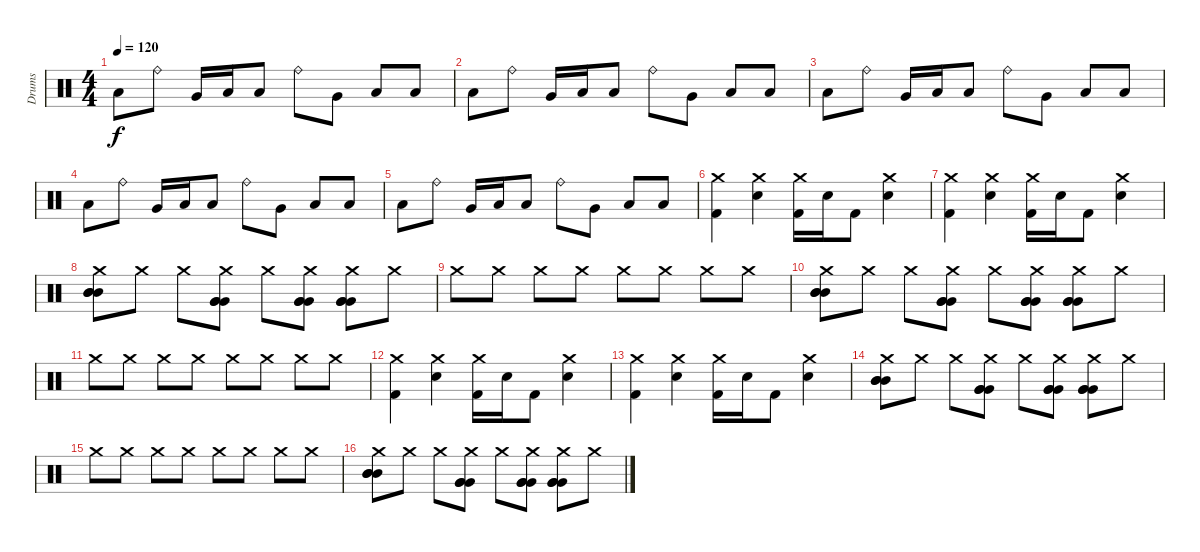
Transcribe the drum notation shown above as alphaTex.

\track ("Drums" "Drums") {instrument percussion}
\staff {score}
\articulation defaults
\ts (4 4)
\tempo 120
\clef neutral
\ks c "Low Tom (hit)".8{dy f} "Ride (bell)".8 "Very Low Tom (hit)".16 "Low Floor Tom (hit)".16 "Low Tom (hit)".8 "Ride (bell)".8 "Very Low Tom (hit)".8 "Low Tom (hit)".8 "Low Floor Tom (hit)".8
|
"Low Tom (hit)".8 "Ride (bell)".8 "Very Low Tom (hit)".16 "Low Floor Tom (hit)".16 "Low Tom (hit)".8 "Ride (bell)".8 "Very Low Tom (hit)".8 "Low Tom (hit)".8 "Low Floor Tom (hit)".8 |
"Low Tom (hit)".8 "Ride (bell)".8 "Very Low Tom (hit)".16 "Low Floor Tom (hit)".16 "Low Tom (hit)".8 "Ride (bell)".8 "Very Low Tom (hit)".8 "Low Tom (hit)".8 "Low Floor Tom (hit)".8 |
"Low Tom (hit)".8 "Ride (bell)".8 "Very Low Tom (hit)".16 "Low Floor Tom (hit)".16 "Low Tom (hit)".8 "Ride (bell)".8 "Very Low Tom (hit)".8 "Low Tom (hit)".8 "Low Floor Tom (hit)".8 |
"Low Tom (hit)".8 "Ride (bell)".8 "Very Low Tom (hit)".16 "Low Floor Tom (hit)".16 "Low Tom (hit)".8 "Ride (bell)".8 "Very Low Tom (hit)".8 "Low Tom (hit)".8 "Low Floor Tom (hit)".8 |
("Crash medium (hit)" "Kick (hit) 2").4 ("Crash medium (hit)" "Snare (hit) 2").4 ("Crash medium (hit)" "Kick (hit) 2").16 "Snare (hit) 2".16 "Kick (hit) 2".8 ("Crash medium (hit)" "Snare (hit) 2").4 |
("Crash medium (hit)" "Kick (hit) 2").4 ("Crash medium (hit)" "Snare (hit) 2").4 ("Crash medium (hit)" "Kick (hit) 2").16 "Snare (hit) 2".16 "Kick (hit) 2".8 ("Crash medium (hit)" "Snare (hit) 2").4 |
("Crash medium (hit)" "Mid Tom (hit)" "Mid Tom (hit)" "Mid Tom (hit)").8{volume 16} "Crash medium (hit)".8 "Crash medium (hit)".8 ("Crash medium (hit)" "Very Low Tom (hit)" "Very Low Tom (hit)" "Very Low Tom (hit)").8 "Crash medium (hit)".8 ("Crash medium (hit)" "Very Low Tom (hit)" "Very Low Tom (hit)" "Very Low Tom (hit)").8 ("Crash medium (hit)" "Very Low Tom (hit)" "Very Low Tom (hit)" "Very Low Tom (hit)").8 "Crash medium (hit)".8 |
"Crash medium (hit)".8{volume 10} "Crash medium (hit)".8 "Crash medium (hit)".8 "Crash medium (hit)".8 "Crash medium (hit)".8 "Crash medium (hit)".8 "Crash medium (hit)".8 "Crash medium (hit)".8 |
("Crash medium (hit)" "Mid Tom (hit)" "Mid Tom (hit)" "Mid Tom (hit)").8{volume 16} "Crash medium (hit)".8 "Crash medium (hit)".8 ("Crash medium (hit)" "Very Low Tom (hit)" "Very Low Tom (hit)" "Very Low Tom (hit)").8 "Crash medium (hit)".8 ("Crash medium (hit)" "Very Low Tom (hit)" "Very Low Tom (hit)" "Very Low Tom (hit)").8 ("Crash medium (hit)" "Very Low Tom (hit)" "Very Low Tom (hit)" "Very Low Tom (hit)").8 "Crash medium (hit)".8 |
"Crash medium (hit)".8{volume 10} "Crash medium (hit)".8 "Crash medium (hit)".8 "Crash medium (hit)".8 "Crash medium (hit)".8 "Crash medium (hit)".8 "Crash medium (hit)".8 "Crash medium (hit)".8 |
("Crash medium (hit)" "Kick (hit) 2").4 ("Crash medium (hit)" "Snare (hit) 2").4 ("Crash medium (hit)" "Kick (hit) 2").16 "Snare (hit) 2".16 "Kick (hit) 2".8 ("Crash medium (hit)" "Snare (hit) 2").4 |
("Crash medium (hit)" "Kick (hit) 2").4 ("Crash medium (hit)" "Snare (hit) 2").4 ("Crash medium (hit)" "Kick (hit) 2").16 "Snare (hit) 2".16 "Kick (hit) 2".8 ("Crash medium (hit)" "Snare (hit) 2").4 |
("Crash medium (hit)" "Mid Tom (hit)" "Mid Tom (hit)" "Mid Tom (hit)").8{volume 16} "Crash medium (hit)".8 "Crash medium (hit)".8 ("Crash medium (hit)" "Very Low Tom (hit)" "Very Low Tom (hit)" "Very Low Tom (hit)").8 "Crash medium (hit)".8 ("Crash medium (hit)" "Very Low Tom (hit)" "Very Low Tom (hit)" "Very Low Tom (hit)").8 ("Crash medium (hit)" "Very Low Tom (hit)" "Very Low Tom (hit)" "Very Low Tom (hit)").8 "Crash medium (hit)".8 |
"Crash medium (hit)".8{volume 10} "Crash medium (hit)".8 "Crash medium (hit)".8 "Crash medium (hit)".8 "Crash medium (hit)".8 "Crash medium (hit)".8 "Crash medium (hit)".8 "Crash medium (hit)".8 |
("Crash medium (hit)" "Mid Tom (hit)" "Mid Tom (hit)" "Mid Tom (hit)").8{volume 16} "Crash medium (hit)".8 "Crash medium (hit)".8 ("Crash medium (hit)" "Very Low Tom (hit)" "Very Low Tom (hit)" "Very Low Tom (hit)").8 "Crash medium (hit)".8 ("Crash medium (hit)" "Very Low Tom (hit)" "Very Low Tom (hit)" "Very Low Tom (hit)").8 ("Crash medium (hit)" "Very Low Tom (hit)" "Very Low Tom (hit)" "Very Low Tom (hit)").8 "Crash medium (hit)".8
